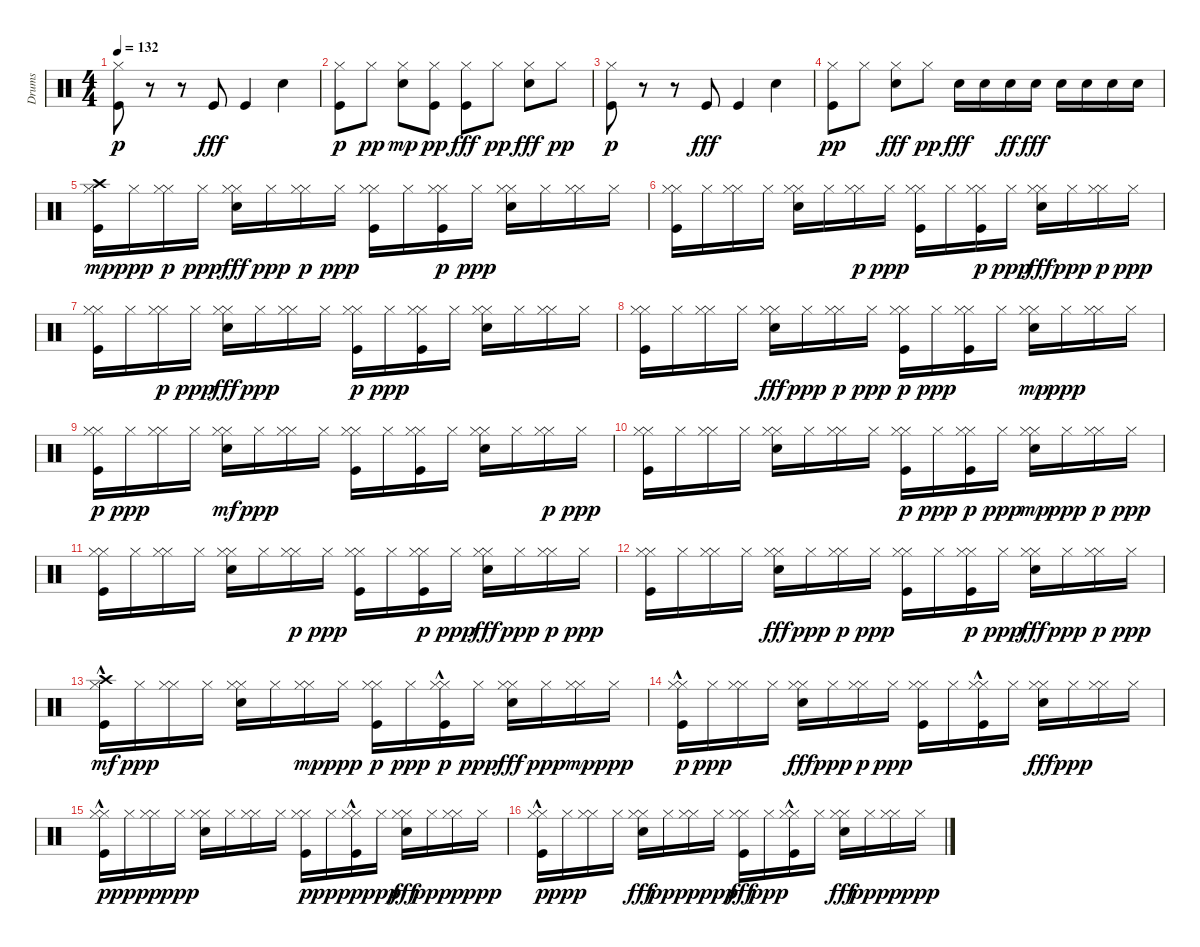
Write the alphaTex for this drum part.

\track ("Drums" "Drums") {instrument percussion}
\staff {score}
\articulation defaults
\ts (4 4)
\tempo 132
\clef neutral
\ks c
("Kick (hit)" "Hi-Hat (closed)").8{dy p} r.8 r.8 "Kick (hit)".8{dy fff} "Kick (hit)".4 "Snare (hit) 2".4 |
("Kick (hit)" "Hi-Hat (closed)").8{dy p} "Hi-Hat (closed)".8{dy pp} ("Snare (hit) 2" "Hi-Hat (closed)").8{dy mp} ("Kick (hit)" "Hi-Hat (closed)").8{dy pp} ("Hi-Hat (closed)" "Kick (hit)").8{dy fff} "Hi-Hat (closed)".8{dy pp} ("Hi-Hat (closed)" "Snare (hit) 2").8{dy fff} "Hi-Hat (closed)".8{dy pp} |
("Kick (hit)" "Hi-Hat (closed)").8{dy p} r.8 r.8 "Kick (hit)".8{dy fff} "Kick (hit)".4 "Snare (hit) 2".4 |
("Kick (hit)" "Hi-Hat (closed)").8{dy pp} "Hi-Hat (closed)".8 ("Hi-Hat (closed)" "Snare (hit) 2").8{dy fff} "Hi-Hat (closed)".8{dy pp} "Snare (hit) 2".16{dy fff} "Snare (hit) 2".16 "Snare (hit) 2".16{dy ff} "Snare (hit) 2".16{dy fff} "Snare (hit) 2".16 "Snare (hit) 2".16 "Snare (hit) 2".16 "Snare (hit) 2".16 |
("Kick (hit)" "Hi-Hat (closed)" "Crash high (hit)").16{dy mp} "Hi-Hat (closed)".16{dy ppp} ("Hi-Hat (closed)" "Hi-Hat (closed)").16{dy p} "Hi-Hat (closed)".16{dy ppp} ("Hi-Hat (closed)" "Hi-Hat (closed)" "Snare (hit) 2").16{dy fff} "Hi-Hat (closed)".16{dy ppp} ("Hi-Hat (closed)" "Hi-Hat (closed)").16{dy p} "Hi-Hat (closed)".16{dy ppp} ("Hi-Hat (closed)" "Kick (hit)" "Hi-Hat (closed)").16 "Hi-Hat (closed)".16 ("Kick (hit)" "Hi-Hat (closed)" "Hi-Hat (closed)").16{dy p} "Hi-Hat (closed)".16{dy ppp} ("Snare (hit) 2" "Hi-Hat (closed)" "Hi-Hat (closed)").16 "Hi-Hat (closed)".16 ("Hi-Hat (closed)" "Hi-Hat (closed)").16 "Hi-Hat (closed)".16 |
("Kick (hit)" "Hi-Hat (closed)" "Hi-Hat (closed)").16 "Hi-Hat (closed)".16 ("Hi-Hat (closed)" "Hi-Hat (closed)").16 "Hi-Hat (closed)".16 ("Hi-Hat (closed)" "Snare (hit) 2" "Hi-Hat (closed)").16 "Hi-Hat (closed)".16 ("Hi-Hat (closed)" "Hi-Hat (closed)").16{dy p} "Hi-Hat (closed)".16{dy ppp} ("Kick (hit)" "Hi-Hat (closed)" "Hi-Hat (closed)").16 "Hi-Hat (closed)".16 ("Kick (hit)" "Hi-Hat (closed)" "Hi-Hat (closed)").16{dy p} "Hi-Hat (closed)".16{dy ppp} ("Hi-Hat (closed)" "Hi-Hat (closed)" "Snare (hit) 2").16{dy fff} "Hi-Hat (closed)".16{dy ppp} ("Hi-Hat (closed)" "Hi-Hat (closed)").16{dy p} "Hi-Hat (closed)".16{dy ppp} |
("Kick (hit)" "Hi-Hat (closed)" "Hi-Hat (closed)").16 "Hi-Hat (closed)".16 ("Hi-Hat (closed)" "Hi-Hat (closed)").16{dy p} "Hi-Hat (closed)".16{dy ppp} ("Hi-Hat (closed)" "Hi-Hat (closed)" "Snare (hit) 2").16{dy fff} "Hi-Hat (closed)".16{dy ppp} ("Hi-Hat (closed)" "Hi-Hat (closed)").16 "Hi-Hat (closed)".16 ("Hi-Hat (closed)" "Kick (hit)" "Hi-Hat (closed)").16{dy p} "Hi-Hat (closed)".16{dy ppp} ("Kick (hit)" "Hi-Hat (closed)" "Hi-Hat (closed)").16 "Hi-Hat (closed)".16 ("Snare (hit) 2" "Hi-Hat (closed)" "Hi-Hat (closed)").16 "Hi-Hat (closed)".16 ("Hi-Hat (closed)" "Hi-Hat (closed)").16 "Hi-Hat (closed)".16 |
("Kick (hit)" "Hi-Hat (closed)" "Hi-Hat (closed)").16 "Hi-Hat (closed)".16 ("Hi-Hat (closed)" "Hi-Hat (closed)").16 "Hi-Hat (closed)".16 ("Hi-Hat (closed)" "Hi-Hat (closed)" "Snare (hit) 2").16{dy fff} "Hi-Hat (closed)".16{dy ppp} ("Hi-Hat (closed)" "Hi-Hat (closed)").16{dy p} "Hi-Hat (closed)".16{dy ppp} ("Kick (hit)" "Hi-Hat (closed)" "Hi-Hat (closed)").16{dy p} "Hi-Hat (closed)".16{dy ppp} ("Kick (hit)" "Hi-Hat (closed)" "Hi-Hat (closed)").16 "Hi-Hat (closed)".16 ("Hi-Hat (closed)" "Snare (hit) 2" "Hi-Hat (closed)").16{dy mp} "Hi-Hat (closed)".16{dy ppp} ("Hi-Hat (closed)" "Hi-Hat (closed)").16 "Hi-Hat (closed)".16 |
("Kick (hit)" "Hi-Hat (closed)" "Hi-Hat (closed)").16{dy p} "Hi-Hat (closed)".16{dy ppp} ("Hi-Hat (closed)" "Hi-Hat (closed)").16 "Hi-Hat (closed)".16 ("Hi-Hat (closed)" "Snare (hit) 2" "Hi-Hat (closed)").16{dy mf} "Hi-Hat (closed)".16{dy ppp} ("Hi-Hat (closed)" "Hi-Hat (closed)").16 "Hi-Hat (closed)".16 ("Kick (hit)" "Hi-Hat (closed)" "Hi-Hat (closed)").16 "Hi-Hat (closed)".16 ("Kick (hit)" "Hi-Hat (closed)" "Hi-Hat (closed)").16 "Hi-Hat (closed)".16 ("Snare (hit) 2" "Hi-Hat (closed)" "Hi-Hat (closed)").16 "Hi-Hat (closed)".16 ("Hi-Hat (closed)" "Hi-Hat (closed)").16{dy p} "Hi-Hat (closed)".16{dy ppp} |
("Kick (hit)" "Hi-Hat (closed)" "Hi-Hat (closed)").16 "Hi-Hat (closed)".16 ("Hi-Hat (closed)" "Hi-Hat (closed)").16 "Hi-Hat (closed)".16 ("Hi-Hat (closed)" "Snare (hit) 2" "Hi-Hat (closed)").16 "Hi-Hat (closed)".16 ("Hi-Hat (closed)" "Hi-Hat (closed)").16 "Hi-Hat (closed)".16 ("Kick (hit)" "Hi-Hat (closed)" "Hi-Hat (closed)").16{dy p} "Hi-Hat (closed)".16{dy ppp} ("Hi-Hat (closed)" "Kick (hit)" "Hi-Hat (closed)").16{dy p} "Hi-Hat (closed)".16{dy ppp} ("Snare (hit) 2" "Hi-Hat (closed)" "Hi-Hat (closed)").16{dy mp} "Hi-Hat (closed)".16{dy ppp} ("Hi-Hat (closed)" "Hi-Hat (closed)").16{dy p} "Hi-Hat (closed)".16{dy ppp} |
("Kick (hit)" "Hi-Hat (closed)" "Hi-Hat (closed)").16 "Hi-Hat (closed)".16 ("Hi-Hat (closed)" "Hi-Hat (closed)").16 "Hi-Hat (closed)".16 ("Hi-Hat (closed)" "Snare (hit) 2" "Hi-Hat (closed)").16 "Hi-Hat (closed)".16 ("Hi-Hat (closed)" "Hi-Hat (closed)").16{dy p} "Hi-Hat (closed)".16{dy ppp} ("Kick (hit)" "Hi-Hat (closed)" "Hi-Hat (closed)").16 "Hi-Hat (closed)".16 ("Kick (hit)" "Hi-Hat (closed)" "Hi-Hat (closed)").16{dy p} "Hi-Hat (closed)".16{dy ppp} ("Hi-Hat (closed)" "Hi-Hat (closed)" "Snare (hit) 2").16{dy fff} "Hi-Hat (closed)".16{dy ppp} ("Hi-Hat (closed)" "Hi-Hat (closed)").16{dy p} "Hi-Hat (closed)".16{dy ppp} |
("Kick (hit)" "Hi-Hat (closed)" "Hi-Hat (closed)").16 "Hi-Hat (closed)".16 ("Hi-Hat (closed)" "Hi-Hat (closed)").16 "Hi-Hat (closed)".16 ("Hi-Hat (closed)" "Hi-Hat (closed)" "Snare (hit) 2").16{dy fff} "Hi-Hat (closed)".16{dy ppp} ("Hi-Hat (closed)" "Hi-Hat (closed)").16{dy p} "Hi-Hat (closed)".16{dy ppp} ("Kick (hit)" "Hi-Hat (closed)" "Hi-Hat (closed)").16 "Hi-Hat (closed)".16 ("Hi-Hat (closed)" "Kick (hit)" "Hi-Hat (closed)").16{dy p} "Hi-Hat (closed)".16{dy ppp} ("Hi-Hat (closed)" "Hi-Hat (closed)" "Snare (hit) 2").16{dy fff} "Hi-Hat (closed)".16{dy ppp} ("Hi-Hat (closed)" "Hi-Hat (closed)").16{dy p} "Hi-Hat (closed)".16{dy ppp} |
("Kick (hit)"{hac} "Hi-Hat (closed)" "Crash high (hit)").16{dy mf} "Hi-Hat (closed)".16{dy ppp} ("Hi-Hat (closed)" "Hi-Hat (closed)").16 "Hi-Hat (closed)".16 ("Hi-Hat (closed)" "Snare (hit) 2" "Hi-Hat (closed)").16 "Hi-Hat (closed)".16 ("Hi-Hat (closed)" "Hi-Hat (closed)").16{dy mp} "Hi-Hat (closed)".16{dy ppp} ("Kick (hit)" "Hi-Hat (closed)" "Hi-Hat (closed)").16{dy p} "Hi-Hat (closed)".16{dy ppp} ("Kick (hit)"{hac} "Hi-Hat (closed)" "Hi-Hat (closed)").16{dy p} "Hi-Hat (closed)".16{dy ppp} ("Hi-Hat (closed)" "Hi-Hat (closed)" "Snare (hit) 2").16{dy fff} "Hi-Hat (closed)".16{dy ppp} ("Hi-Hat (closed)" "Hi-Hat (closed)").16{dy mp} "Hi-Hat (closed)".16{dy ppp} |
("Kick (hit)"{hac} "Hi-Hat (closed)" "Hi-Hat (closed)").16{dy p} "Hi-Hat (closed)".16{dy ppp} ("Hi-Hat (closed)" "Hi-Hat (closed)").16 "Hi-Hat (closed)".16 ("Hi-Hat (closed)" "Hi-Hat (closed)" "Snare (hit) 2").16{dy fff} "Hi-Hat (closed)".16{dy ppp} ("Hi-Hat (closed)" "Hi-Hat (closed)").16{dy p} "Hi-Hat (closed)".16{dy ppp} ("Kick (hit)" "Hi-Hat (closed)" "Hi-Hat (closed)").16 "Hi-Hat (closed)".16 ("Kick (hit)"{hac} "Hi-Hat (closed)" "Hi-Hat (closed)").16 "Hi-Hat (closed)".16 ("Hi-Hat (closed)" "Hi-Hat (closed)" "Snare (hit) 2").16{dy fff} "Hi-Hat (closed)".16{dy ppp} ("Hi-Hat (closed)" "Hi-Hat (closed)").16 "Hi-Hat (closed)".16 |
("Kick (hit)"{hac} "Hi-Hat (closed)" "Hi-Hat (closed)").16{dy p} "Hi-Hat (closed)".16{dy ppp} ("Hi-Hat (closed)" "Hi-Hat (closed)").16{dy p} "Hi-Hat (closed)".16{dy ppp} ("Hi-Hat (closed)" "Snare (hit) 2" "Hi-Hat (closed)").16 "Hi-Hat (closed)".16 ("Hi-Hat (closed)" "Hi-Hat (closed)").16 "Hi-Hat (closed)".16 ("Kick (hit)" "Hi-Hat (closed)" "Hi-Hat (closed)").16{dy p} "Hi-Hat (closed)".16{dy ppp} ("Kick (hit)"{hac} "Hi-Hat (closed)" "Hi-Hat (closed)").16{dy p} "Hi-Hat (closed)".16{dy ppp} ("Hi-Hat (closed)" "Hi-Hat (closed)" "Snare (hit) 2").16{dy fff} "Hi-Hat (closed)".16{dy ppp} ("Hi-Hat (closed)" "Hi-Hat (closed)").16{dy p} "Hi-Hat (closed)".16{dy ppp} |
("Hi-Hat (closed)" "Kick (hit)"{hac} "Hi-Hat (closed)").16{dy p} "Hi-Hat (closed)".16{dy ppp} ("Hi-Hat (closed)" "Hi-Hat (closed)").16 "Hi-Hat (closed)".16 ("Hi-Hat (closed)" "Hi-Hat (closed)" "Snare (hit) 2").16{dy fff} "Hi-Hat (closed)".16{dy ppp} ("Hi-Hat (closed)" "Hi-Hat (closed)").16{dy p} "Hi-Hat (closed)".16{dy ppp} ("Hi-Hat (closed)" "Hi-Hat (closed)" "Kick (hit)").16{dy fff} "Hi-Hat (closed)".16{dy ppp} ("Kick (hit)"{hac} "Hi-Hat (closed)" "Hi-Hat (closed)").16 "Hi-Hat (closed)".16 ("Hi-Hat (closed)" "Hi-Hat (closed)" "Snare (hit) 2").16{dy fff} "Hi-Hat (closed)".16{dy ppp} ("Hi-Hat (closed)" "Hi-Hat (closed)").16{dy p} "Hi-Hat (closed)".16{dy ppp}
